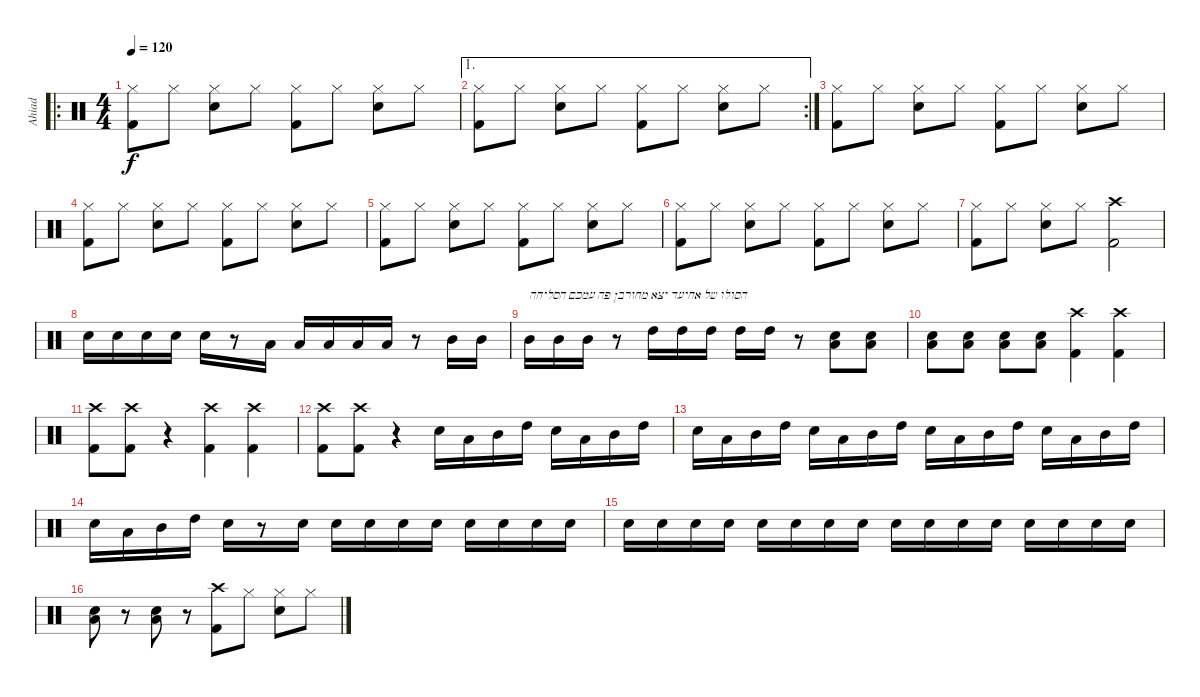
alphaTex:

\track ("Ahiad" "Ahiad") {instrument percussion}
\staff {score}
\articulation defaults
\ro
\ts (4 4)
\tempo 120
\clef neutral
\ks c
("Hi-Hat (closed)" "Kick (hit) 2").8{dy f} "Hi-Hat (closed)".8 ("Hi-Hat (closed)" "Snare (hit) 2").8 "Hi-Hat (closed)".8 ("Hi-Hat (closed)" "Kick (hit) 2").8 "Hi-Hat (closed)".8 ("Hi-Hat (closed)" "Snare (hit) 2").8 "Hi-Hat (closed)".8 |
\ae 1
\rc 2
("Hi-Hat (closed)" "Kick (hit) 2").8 "Hi-Hat (closed)".8 ("Hi-Hat (closed)" "Snare (hit) 2").8 "Hi-Hat (closed)".8 ("Hi-Hat (closed)" "Kick (hit) 2").8 "Hi-Hat (closed)".8 ("Hi-Hat (closed)" "Snare (hit) 2").8 "Hi-Hat (closed)".8 |
("Hi-Hat (closed)" "Kick (hit) 2").8 "Hi-Hat (closed)".8 ("Hi-Hat (closed)" "Snare (hit) 2").8 "Hi-Hat (closed)".8 ("Hi-Hat (closed)" "Kick (hit) 2").8 "Hi-Hat (closed)".8 ("Hi-Hat (closed)" "Snare (hit) 2").8 "Hi-Hat (closed)".8 |
("Hi-Hat (closed)" "Kick (hit) 2").8 "Hi-Hat (closed)".8 ("Hi-Hat (closed)" "Snare (hit) 2").8 "Hi-Hat (closed)".8 ("Hi-Hat (closed)" "Kick (hit) 2").8 "Hi-Hat (closed)".8 ("Hi-Hat (closed)" "Snare (hit) 2").8 "Hi-Hat (closed)".8 |
("Hi-Hat (closed)" "Kick (hit) 2").8 "Hi-Hat (closed)".8 ("Hi-Hat (closed)" "Snare (hit) 2").8 "Hi-Hat (closed)".8 ("Hi-Hat (closed)" "Kick (hit) 2").8 "Hi-Hat (closed)".8 ("Hi-Hat (closed)" "Snare (hit) 2").8 "Hi-Hat (closed)".8 |
("Hi-Hat (closed)" "Kick (hit) 2").8 "Hi-Hat (closed)".8 ("Hi-Hat (closed)" "Snare (hit) 2").8 "Hi-Hat (closed)".8 ("Hi-Hat (closed)" "Kick (hit) 2").8 "Hi-Hat (closed)".8 ("Hi-Hat (closed)" "Snare (hit) 2").8 "Hi-Hat (closed)".8 |
("Hi-Hat (closed)" "Kick (hit) 2").8 "Hi-Hat (closed)".8 ("Hi-Hat (closed)" "Snare (hit) 2").8 "Hi-Hat (closed)".8 ("Crash high (hit)" "Kick (hit) 2").2 |
"Snare (hit) 2".16 "Snare (hit) 2".16 "Snare (hit) 2".16 "Snare (hit) 2".16 "Snare (hit) 2".16 r.8 "Low Tom (hit)".16 "Low Tom (hit)".16 "Low Tom (hit)".16 "Low Tom (hit)".16 "Low Tom (hit)".16 r.8 "Mid Tom (hit)".16 "Mid Tom (hit)".16 |
"Mid Tom (hit)".16{txt "הסולו של אחיעד יצא מחורבן פה עמכם הסליחה"} "Mid Tom (hit)".16 "Mid Tom (hit)".16 r.8 "High Tom (hit)".16 "High Tom (hit)".16 "High Tom (hit)".16 "High Tom (hit)".16 "High Tom (hit)".16 r.8 ("Low Tom (hit)" "Snare (hit) 2").8 ("Low Tom (hit)" "Snare (hit) 2").8 |
("Low Tom (hit)" "Snare (hit) 2").8 ("Low Tom (hit)" "Snare (hit) 2").8 ("Low Tom (hit)" "Snare (hit) 2").8 ("Low Tom (hit)" "Snare (hit) 2").8 ("Crash high (hit)" "Kick (hit) 2").4 ("Crash high (hit)" "Kick (hit) 2").4 |
("Crash high (hit)" "Kick (hit) 2").8 ("Crash high (hit)" "Kick (hit) 2").8 r.4 ("Crash high (hit)" "Kick (hit) 2").4 ("Crash high (hit)" "Kick (hit) 2").4 |
("Crash high (hit)" "Kick (hit) 2").8 ("Crash high (hit)" "Kick (hit) 2").8 r.4 "Snare (hit) 2".16 "Low Tom (hit)".16 "Mid Tom (hit)".16 "High Tom (hit)".16 "Snare (hit) 2".16 "Low Tom (hit)".16 "Mid Tom (hit)".16 "High Tom (hit)".16 |
"Snare (hit) 2".16 "Low Tom (hit)".16 "Mid Tom (hit)".16 "High Tom (hit)".16 "Snare (hit) 2".16 "Low Tom (hit)".16 "Mid Tom (hit)".16 "High Tom (hit)".16 "Snare (hit) 2".16 "Low Tom (hit)".16 "Mid Tom (hit)".16 "High Tom (hit)".16 "Snare (hit) 2".16 "Low Tom (hit)".16 "Mid Tom (hit)".16 "High Tom (hit)".16 |
"Snare (hit) 2".16 "Low Tom (hit)".16 "Mid Tom (hit)".16 "High Tom (hit)".16 "Snare (hit) 2".16 r.8 "Snare (hit) 2".16 "Snare (hit) 2".16 "Snare (hit) 2".16 "Snare (hit) 2".16 "Snare (hit) 2".16 "Snare (hit) 2".16 "Snare (hit) 2".16 "Snare (hit) 2".16 "Snare (hit) 2".16 |
"Snare (hit) 2".16 "Snare (hit) 2".16 "Snare (hit) 2".16 "Snare (hit) 2".16 "Snare (hit) 2".16 "Snare (hit) 2".16 "Snare (hit) 2".16 "Snare (hit) 2".16 "Snare (hit) 2".16 "Snare (hit) 2".16 "Snare (hit) 2".16 "Snare (hit) 2".16 "Snare (hit) 2".16 "Snare (hit) 2".16 "Snare (hit) 2".16 "Snare (hit) 2".16 |
("Low Tom (hit)" "Snare (hit) 2").8 r.8 ("Low Tom (hit)" "Snare (hit) 2").8 r.8 ("Crash high (hit)" "Kick (hit) 2").8 "Hi-Hat (closed)".8 ("Hi-Hat (closed)" "Snare (hit) 2").8 "Hi-Hat (closed)".8
